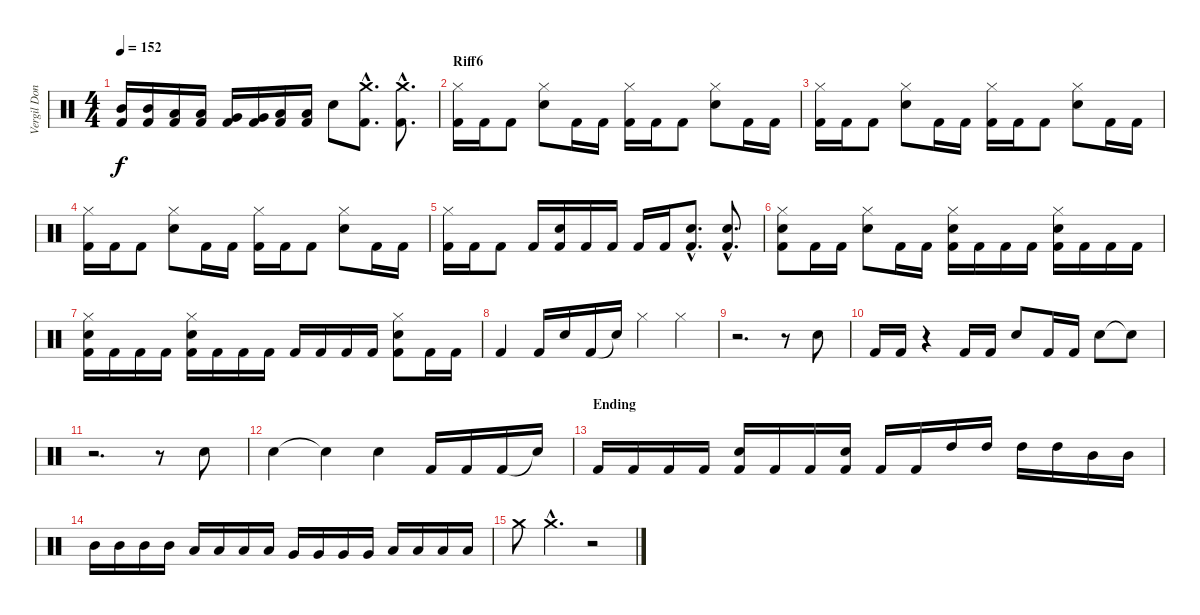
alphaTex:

\track ("Vergil Donati" "Vergil Don") {instrument percussion}
\staff {score}
\articulation defaults
\ts (4 4)
\tempo 152
\clef neutral
\ks c
("Mid Tom (hit)" "Kick (hit) 2").16{dy f} ("Mid Tom (hit)" "Kick (hit) 2").16 ("Low Tom (hit)" "Kick (hit) 2").16 ("Low Tom (hit)" "Kick (hit) 2").16 ("Very Low Tom (hit)" "Kick (hit) 2").16 ("Very Low Tom (hit)" "Kick (hit) 2").16 ("Low Floor Tom (hit)" "Kick (hit) 2").16 ("Low Floor Tom (hit)" "Kick (hit) 2").16 "Electric Snare (hit)".8 ("Crash medium (hit)"{hac} "Kick (hit) 2"{hac}).8{d} ("Crash medium (hit)"{hac} "Kick (hit) 2"{hac}).8{d} |
\section ("" "Riff6")
("Hi-Hat (closed)" "Kick (hit) 2").16 "Kick (hit) 2".16 "Kick (hit) 2".8 ("Electric Snare (hit)" "Hi-Hat (closed)").8 "Kick (hit) 2".16 "Kick (hit) 2".16 ("Hi-Hat (closed)" "Kick (hit) 2").16 "Kick (hit) 2".16 "Kick (hit) 2".8 ("Electric Snare (hit)" "Hi-Hat (closed)").8 "Kick (hit) 2".16 "Kick (hit) 2".16 |
("Hi-Hat (closed)" "Kick (hit) 2").16 "Kick (hit) 2".16 "Kick (hit) 2".8 ("Electric Snare (hit)" "Hi-Hat (closed)").8 "Kick (hit) 2".16 "Kick (hit) 2".16 ("Hi-Hat (closed)" "Kick (hit) 2").16 "Kick (hit) 2".16 "Kick (hit) 2".8 ("Electric Snare (hit)" "Hi-Hat (closed)").8 "Kick (hit) 2".16 "Kick (hit) 2".16 |
("Hi-Hat (closed)" "Kick (hit) 2").16 "Kick (hit) 2".16 "Kick (hit) 2".8 ("Electric Snare (hit)" "Hi-Hat (closed)").8 "Kick (hit) 2".16 "Kick (hit) 2".16 ("Hi-Hat (closed)" "Kick (hit) 2").16 "Kick (hit) 2".16 "Kick (hit) 2".8 ("Electric Snare (hit)" "Hi-Hat (closed)").8 "Kick (hit) 2".16 "Kick (hit) 2".16 |
("Hi-Hat (closed)" "Kick (hit) 2").16 "Kick (hit) 2".16 "Kick (hit) 2".8 "Kick (hit) 2".16 ("Electric Snare (hit)" "Kick (hit) 2").16 "Kick (hit) 2".16 "Kick (hit) 2".16 "Kick (hit) 2".16 "Kick (hit) 2".16 ("Electric Snare (hit)"{hac} "Kick (hit) 2"{hac}).8{d} ("Electric Snare (hit)"{hac} "Kick (hit) 2"{hac}).8{d} |
("Electric Snare (hit)" "Hi-Hat (closed)" "Kick (hit) 2").8 "Kick (hit) 2".16 "Kick (hit) 2".16 ("Electric Snare (hit)" "Hi-Hat (closed)").8 "Kick (hit) 2".16 "Kick (hit) 2".16 ("Electric Snare (hit)" "Hi-Hat (closed)" "Kick (hit) 2").16 "Kick (hit) 2".16 "Kick (hit) 2".16 "Kick (hit) 2".16 ("Electric Snare (hit)" "Hi-Hat (closed)" "Kick (hit) 2").16 "Kick (hit) 2".16 "Kick (hit) 2".16 "Kick (hit) 2".16 |
("Electric Snare (hit)" "Hi-Hat (closed)" "Kick (hit) 2").16 "Kick (hit) 2".16 "Kick (hit) 2".16 "Kick (hit) 2".16 ("Electric Snare (hit)" "Hi-Hat (closed)" "Kick (hit) 2").16 "Kick (hit) 2".16 "Kick (hit) 2".16 "Kick (hit) 2".16 "Kick (hit) 2".16 "Kick (hit) 2".16 "Kick (hit) 2".16 "Kick (hit) 2".16 ("Electric Snare (hit)" "Hi-Hat (closed)" "Kick (hit) 2").8 "Kick (hit) 2".16 "Kick (hit) 2".16 |
"Kick (hit) 2".4 "Kick (hit) 2".16 "Electric Snare (hit)".16 "Kick (hit) 2".16 "Snare (hit)"{t}.16 "Hi-Hat (closed)".4 "Hi-Hat (closed)".4 |
r.2{d} r.8 "Electric Snare (hit)".8 |
"Kick (hit) 2".16 "Kick (hit) 2".16 r.4 "Kick (hit) 2".16 "Kick (hit) 2".16 "Electric Snare (hit)".8 "Kick (hit) 2".16 "Kick (hit) 2".16 "Electric Snare (hit)".8 "Snare (hit)"{t}.8 |
r.2{d} r.8 "Electric Snare (hit)".8 |
"Electric Snare (hit)".4 "Snare (hit)"{t}.4 "Electric Snare (hit)".4 "Kick (hit) 2".16 "Kick (hit) 2".16 "Kick (hit) 2".16 "Snare (hit)"{t}.16 |
\section ("" "Ending")
"Kick (hit) 2".16 "Kick (hit) 2".16 "Kick (hit) 2".16 "Kick (hit) 2".16 ("Electric Snare (hit)" "Kick (hit) 2").16 "Kick (hit) 2".16 "Kick (hit) 2".16 ("Electric Snare (hit)" "Kick (hit) 2").16 "Kick (hit) 2".16 "Kick (hit) 2".16 "High Tom (hit)".16 "High Tom (hit)".16 "High Tom (hit)".16 "High Tom (hit)".16 "Mid Tom (hit)".16 "Mid Tom (hit)".16 |
"Mid Tom (hit)".16 "Mid Tom (hit)".16 "Mid Tom (hit)".16 "Mid Tom (hit)".16 "Low Tom (hit)".16 "Low Tom (hit)".16 "Low Tom (hit)".16 "Low Tom (hit)".16 "Very Low Tom (hit)".16 "Very Low Tom (hit)".16 "Very Low Tom (hit)".16 "Very Low Tom (hit)".16 "Low Floor Tom (hit)".16 "Low Floor Tom (hit)".16 "Low Floor Tom (hit)".16 "Low Floor Tom (hit)".16 |
"Crash medium (hit)".8 "Crash medium (hit)"{hac}.4{d} r.2
